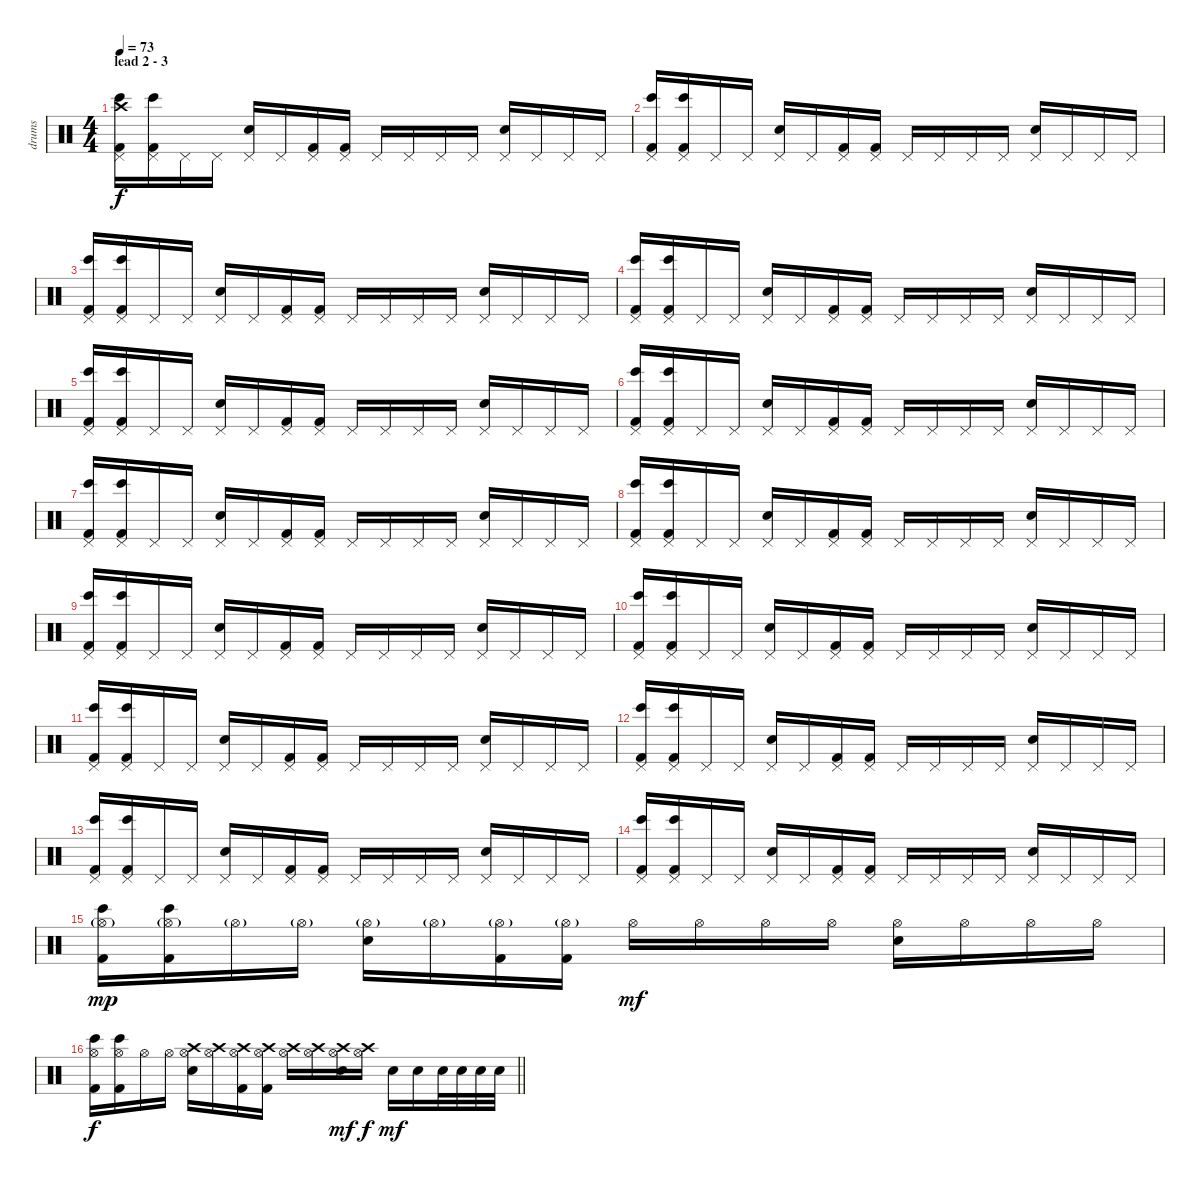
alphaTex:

\track ("drums" "drums") {instrument percussion}
\staff {score}
\articulation defaults
\ts (4 4)
\section ("" "lead 2 - 3")
\tempo 73
\clef neutral
\ks c
("Kick (hit) 2" "Bongo High (hit)" "Pedal Hi-Hat (hit)" "Crash high (hit)").16{dy f} ("Kick (hit) 2" "Bongo High (hit)" "Pedal Hi-Hat (hit)").16 "Pedal Hi-Hat (hit)".16 "Pedal Hi-Hat (hit)".16 ("Electric Snare (hit)" "Pedal Hi-Hat (hit)").16 "Pedal Hi-Hat (hit)".16 ("Kick (hit) 2" "Pedal Hi-Hat (hit)").16 ("Kick (hit) 2" "Pedal Hi-Hat (hit)").16 "Pedal Hi-Hat (hit)".16 "Pedal Hi-Hat (hit)".16 "Pedal Hi-Hat (hit)".16 "Pedal Hi-Hat (hit)".16 ("Electric Snare (hit)" "Pedal Hi-Hat (hit)").16 "Pedal Hi-Hat (hit)".16 "Pedal Hi-Hat (hit)".16 "Pedal Hi-Hat (hit)".16 |
("Kick (hit) 2" "Bongo High (hit)" "Pedal Hi-Hat (hit)").16 ("Kick (hit) 2" "Bongo High (hit)" "Pedal Hi-Hat (hit)").16 "Pedal Hi-Hat (hit)".16 "Pedal Hi-Hat (hit)".16 ("Electric Snare (hit)" "Pedal Hi-Hat (hit)").16 "Pedal Hi-Hat (hit)".16 ("Kick (hit) 2" "Pedal Hi-Hat (hit)").16 ("Kick (hit) 2" "Pedal Hi-Hat (hit)").16 "Pedal Hi-Hat (hit)".16 "Pedal Hi-Hat (hit)".16 "Pedal Hi-Hat (hit)".16 "Pedal Hi-Hat (hit)".16 ("Electric Snare (hit)" "Pedal Hi-Hat (hit)").16 "Pedal Hi-Hat (hit)".16 "Pedal Hi-Hat (hit)".16 "Pedal Hi-Hat (hit)".16 |
("Kick (hit) 2" "Bongo High (hit)" "Pedal Hi-Hat (hit)").16 ("Kick (hit) 2" "Bongo High (hit)" "Pedal Hi-Hat (hit)").16 "Pedal Hi-Hat (hit)".16 "Pedal Hi-Hat (hit)".16 ("Electric Snare (hit)" "Pedal Hi-Hat (hit)").16 "Pedal Hi-Hat (hit)".16 ("Kick (hit) 2" "Pedal Hi-Hat (hit)").16 ("Kick (hit) 2" "Pedal Hi-Hat (hit)").16 "Pedal Hi-Hat (hit)".16 "Pedal Hi-Hat (hit)".16 "Pedal Hi-Hat (hit)".16 "Pedal Hi-Hat (hit)".16 ("Electric Snare (hit)" "Pedal Hi-Hat (hit)").16 "Pedal Hi-Hat (hit)".16 "Pedal Hi-Hat (hit)".16 "Pedal Hi-Hat (hit)".16 |
("Kick (hit) 2" "Bongo High (hit)" "Pedal Hi-Hat (hit)").16 ("Kick (hit) 2" "Bongo High (hit)" "Pedal Hi-Hat (hit)").16 "Pedal Hi-Hat (hit)".16 "Pedal Hi-Hat (hit)".16 ("Electric Snare (hit)" "Pedal Hi-Hat (hit)").16 "Pedal Hi-Hat (hit)".16 ("Kick (hit) 2" "Pedal Hi-Hat (hit)").16 ("Kick (hit) 2" "Pedal Hi-Hat (hit)").16 "Pedal Hi-Hat (hit)".16 "Pedal Hi-Hat (hit)".16 "Pedal Hi-Hat (hit)".16 "Pedal Hi-Hat (hit)".16 ("Electric Snare (hit)" "Pedal Hi-Hat (hit)").16 "Pedal Hi-Hat (hit)".16 "Pedal Hi-Hat (hit)".16 "Pedal Hi-Hat (hit)".16 |
("Kick (hit) 2" "Bongo High (hit)" "Pedal Hi-Hat (hit)").16 ("Kick (hit) 2" "Bongo High (hit)" "Pedal Hi-Hat (hit)").16 "Pedal Hi-Hat (hit)".16 "Pedal Hi-Hat (hit)".16 ("Electric Snare (hit)" "Pedal Hi-Hat (hit)").16 "Pedal Hi-Hat (hit)".16 ("Kick (hit) 2" "Pedal Hi-Hat (hit)").16 ("Kick (hit) 2" "Pedal Hi-Hat (hit)").16 "Pedal Hi-Hat (hit)".16 "Pedal Hi-Hat (hit)".16 "Pedal Hi-Hat (hit)".16 "Pedal Hi-Hat (hit)".16 ("Electric Snare (hit)" "Pedal Hi-Hat (hit)").16 "Pedal Hi-Hat (hit)".16 "Pedal Hi-Hat (hit)".16 "Pedal Hi-Hat (hit)".16 |
("Kick (hit) 2" "Bongo High (hit)" "Pedal Hi-Hat (hit)").16 ("Kick (hit) 2" "Bongo High (hit)" "Pedal Hi-Hat (hit)").16 "Pedal Hi-Hat (hit)".16 "Pedal Hi-Hat (hit)".16 ("Electric Snare (hit)" "Pedal Hi-Hat (hit)").16 "Pedal Hi-Hat (hit)".16 ("Kick (hit) 2" "Pedal Hi-Hat (hit)").16 ("Kick (hit) 2" "Pedal Hi-Hat (hit)").16 "Pedal Hi-Hat (hit)".16 "Pedal Hi-Hat (hit)".16 "Pedal Hi-Hat (hit)".16 "Pedal Hi-Hat (hit)".16 ("Electric Snare (hit)" "Pedal Hi-Hat (hit)").16 "Pedal Hi-Hat (hit)".16 "Pedal Hi-Hat (hit)".16 "Pedal Hi-Hat (hit)".16 |
("Kick (hit) 2" "Bongo High (hit)" "Pedal Hi-Hat (hit)").16 ("Kick (hit) 2" "Bongo High (hit)" "Pedal Hi-Hat (hit)").16 "Pedal Hi-Hat (hit)".16 "Pedal Hi-Hat (hit)".16 ("Electric Snare (hit)" "Pedal Hi-Hat (hit)").16 "Pedal Hi-Hat (hit)".16 ("Kick (hit) 2" "Pedal Hi-Hat (hit)").16 ("Kick (hit) 2" "Pedal Hi-Hat (hit)").16 "Pedal Hi-Hat (hit)".16 "Pedal Hi-Hat (hit)".16 "Pedal Hi-Hat (hit)".16 "Pedal Hi-Hat (hit)".16 ("Electric Snare (hit)" "Pedal Hi-Hat (hit)").16 "Pedal Hi-Hat (hit)".16 "Pedal Hi-Hat (hit)".16 "Pedal Hi-Hat (hit)".16 |
("Kick (hit) 2" "Bongo High (hit)" "Pedal Hi-Hat (hit)").16 ("Kick (hit) 2" "Bongo High (hit)" "Pedal Hi-Hat (hit)").16 "Pedal Hi-Hat (hit)".16 "Pedal Hi-Hat (hit)".16 ("Electric Snare (hit)" "Pedal Hi-Hat (hit)").16 "Pedal Hi-Hat (hit)".16 ("Kick (hit) 2" "Pedal Hi-Hat (hit)").16 ("Kick (hit) 2" "Pedal Hi-Hat (hit)").16 "Pedal Hi-Hat (hit)".16 "Pedal Hi-Hat (hit)".16 "Pedal Hi-Hat (hit)".16 "Pedal Hi-Hat (hit)".16 ("Electric Snare (hit)" "Pedal Hi-Hat (hit)").16 "Pedal Hi-Hat (hit)".16 "Pedal Hi-Hat (hit)".16 "Pedal Hi-Hat (hit)".16 |
("Kick (hit) 2" "Bongo High (hit)" "Pedal Hi-Hat (hit)").16 ("Kick (hit) 2" "Bongo High (hit)" "Pedal Hi-Hat (hit)").16 "Pedal Hi-Hat (hit)".16 "Pedal Hi-Hat (hit)".16 ("Electric Snare (hit)" "Pedal Hi-Hat (hit)").16 "Pedal Hi-Hat (hit)".16 ("Kick (hit) 2" "Pedal Hi-Hat (hit)").16 ("Kick (hit) 2" "Pedal Hi-Hat (hit)").16 "Pedal Hi-Hat (hit)".16 "Pedal Hi-Hat (hit)".16 "Pedal Hi-Hat (hit)".16 "Pedal Hi-Hat (hit)".16 ("Electric Snare (hit)" "Pedal Hi-Hat (hit)").16 "Pedal Hi-Hat (hit)".16 "Pedal Hi-Hat (hit)".16 "Pedal Hi-Hat (hit)".16 |
("Kick (hit) 2" "Bongo High (hit)" "Pedal Hi-Hat (hit)").16 ("Kick (hit) 2" "Bongo High (hit)" "Pedal Hi-Hat (hit)").16 "Pedal Hi-Hat (hit)".16 "Pedal Hi-Hat (hit)".16 ("Electric Snare (hit)" "Pedal Hi-Hat (hit)").16 "Pedal Hi-Hat (hit)".16 ("Kick (hit) 2" "Pedal Hi-Hat (hit)").16 ("Kick (hit) 2" "Pedal Hi-Hat (hit)").16 "Pedal Hi-Hat (hit)".16 "Pedal Hi-Hat (hit)".16 "Pedal Hi-Hat (hit)".16 "Pedal Hi-Hat (hit)".16 ("Electric Snare (hit)" "Pedal Hi-Hat (hit)").16 "Pedal Hi-Hat (hit)".16 "Pedal Hi-Hat (hit)".16 "Pedal Hi-Hat (hit)".16 |
("Kick (hit) 2" "Bongo High (hit)" "Pedal Hi-Hat (hit)").16 ("Kick (hit) 2" "Bongo High (hit)" "Pedal Hi-Hat (hit)").16 "Pedal Hi-Hat (hit)".16 "Pedal Hi-Hat (hit)".16 ("Electric Snare (hit)" "Pedal Hi-Hat (hit)").16 "Pedal Hi-Hat (hit)".16 ("Kick (hit) 2" "Pedal Hi-Hat (hit)").16 ("Kick (hit) 2" "Pedal Hi-Hat (hit)").16 "Pedal Hi-Hat (hit)".16 "Pedal Hi-Hat (hit)".16 "Pedal Hi-Hat (hit)".16 "Pedal Hi-Hat (hit)".16 ("Electric Snare (hit)" "Pedal Hi-Hat (hit)").16 "Pedal Hi-Hat (hit)".16 "Pedal Hi-Hat (hit)".16 "Pedal Hi-Hat (hit)".16 |
("Kick (hit) 2" "Bongo High (hit)" "Pedal Hi-Hat (hit)").16 ("Kick (hit) 2" "Bongo High (hit)" "Pedal Hi-Hat (hit)").16 "Pedal Hi-Hat (hit)".16 "Pedal Hi-Hat (hit)".16 ("Electric Snare (hit)" "Pedal Hi-Hat (hit)").16 "Pedal Hi-Hat (hit)".16 ("Kick (hit) 2" "Pedal Hi-Hat (hit)").16 ("Kick (hit) 2" "Pedal Hi-Hat (hit)").16 "Pedal Hi-Hat (hit)".16 "Pedal Hi-Hat (hit)".16 "Pedal Hi-Hat (hit)".16 "Pedal Hi-Hat (hit)".16 ("Electric Snare (hit)" "Pedal Hi-Hat (hit)").16 "Pedal Hi-Hat (hit)".16 "Pedal Hi-Hat (hit)".16 "Pedal Hi-Hat (hit)".16 |
("Kick (hit) 2" "Bongo High (hit)" "Pedal Hi-Hat (hit)").16 ("Kick (hit) 2" "Bongo High (hit)" "Pedal Hi-Hat (hit)").16 "Pedal Hi-Hat (hit)".16 "Pedal Hi-Hat (hit)".16 ("Electric Snare (hit)" "Pedal Hi-Hat (hit)").16 "Pedal Hi-Hat (hit)".16 ("Kick (hit) 2" "Pedal Hi-Hat (hit)").16 ("Kick (hit) 2" "Pedal Hi-Hat (hit)").16 "Pedal Hi-Hat (hit)".16 "Pedal Hi-Hat (hit)".16 "Pedal Hi-Hat (hit)".16 "Pedal Hi-Hat (hit)".16 ("Electric Snare (hit)" "Pedal Hi-Hat (hit)").16 "Pedal Hi-Hat (hit)".16 "Pedal Hi-Hat (hit)".16 "Pedal Hi-Hat (hit)".16 |
("Kick (hit) 2" "Bongo High (hit)" "Pedal Hi-Hat (hit)").16 ("Kick (hit) 2" "Bongo High (hit)" "Pedal Hi-Hat (hit)").16 "Pedal Hi-Hat (hit)".16 "Pedal Hi-Hat (hit)".16 ("Electric Snare (hit)" "Pedal Hi-Hat (hit)").16 "Pedal Hi-Hat (hit)".16 ("Kick (hit) 2" "Pedal Hi-Hat (hit)").16 ("Kick (hit) 2" "Pedal Hi-Hat (hit)").16 "Pedal Hi-Hat (hit)".16 "Pedal Hi-Hat (hit)".16 "Pedal Hi-Hat (hit)".16 "Pedal Hi-Hat (hit)".16 ("Electric Snare (hit)" "Pedal Hi-Hat (hit)").16 "Pedal Hi-Hat (hit)".16 "Pedal Hi-Hat (hit)".16 "Pedal Hi-Hat (hit)".16 |
("Kick (hit) 2" "Bongo High (hit)" "Hi-Hat (open)"{g}).16{dy mp} ("Kick (hit) 2" "Bongo High (hit)" "Hi-Hat (open)"{g}).16 "Hi-Hat (open)"{g}.16 "Hi-Hat (open)"{g}.16 ("Electric Snare (hit)" "Hi-Hat (open)"{g}).16 "Hi-Hat (open)"{g}.16 ("Kick (hit) 2" "Hi-Hat (open)"{g}).16 ("Kick (hit) 2" "Hi-Hat (open)"{g}).16 "Hi-Hat (open)".16{dy mf} "Hi-Hat (open)".16 "Hi-Hat (open)".16 "Hi-Hat (open)".16 ("Electric Snare (hit)" "Hi-Hat (open)").16 "Hi-Hat (open)".16 "Hi-Hat (open)".16 "Hi-Hat (open)".16 |
\barLineRight lightlight
("Kick (hit) 2" "Bongo High (hit)" "Hi-Hat (open)").16{dy f} ("Kick (hit) 2" "Bongo High (hit)" "Hi-Hat (open)").16 "Hi-Hat (open)".16 "Hi-Hat (open)".16 ("Electric Snare (hit)" "Hi-Hat (open)" "Crash high (hit)").16 ("Hi-Hat (open)" "Crash high (hit)").16 ("Kick (hit) 2" "Hi-Hat (open)" "Crash high (hit)").16 ("Kick (hit) 2" "Hi-Hat (open)" "Crash high (hit)").16 ("Hi-Hat (open)" "Crash high (hit)").16 ("Hi-Hat (open)" "Crash high (hit)").16 ("Electric Snare (hit)" "Hi-Hat (open)" "Crash high (hit)").16{dy mf} ("Hi-Hat (open)" "Crash high (hit)").16{dy f} "Electric Snare (hit)".16{dy mf} "Electric Snare (hit)".16 "Electric Snare (hit)".32 "Electric Snare (hit)".32 "Electric Snare (hit)".32 "Electric Snare (hit)".32
